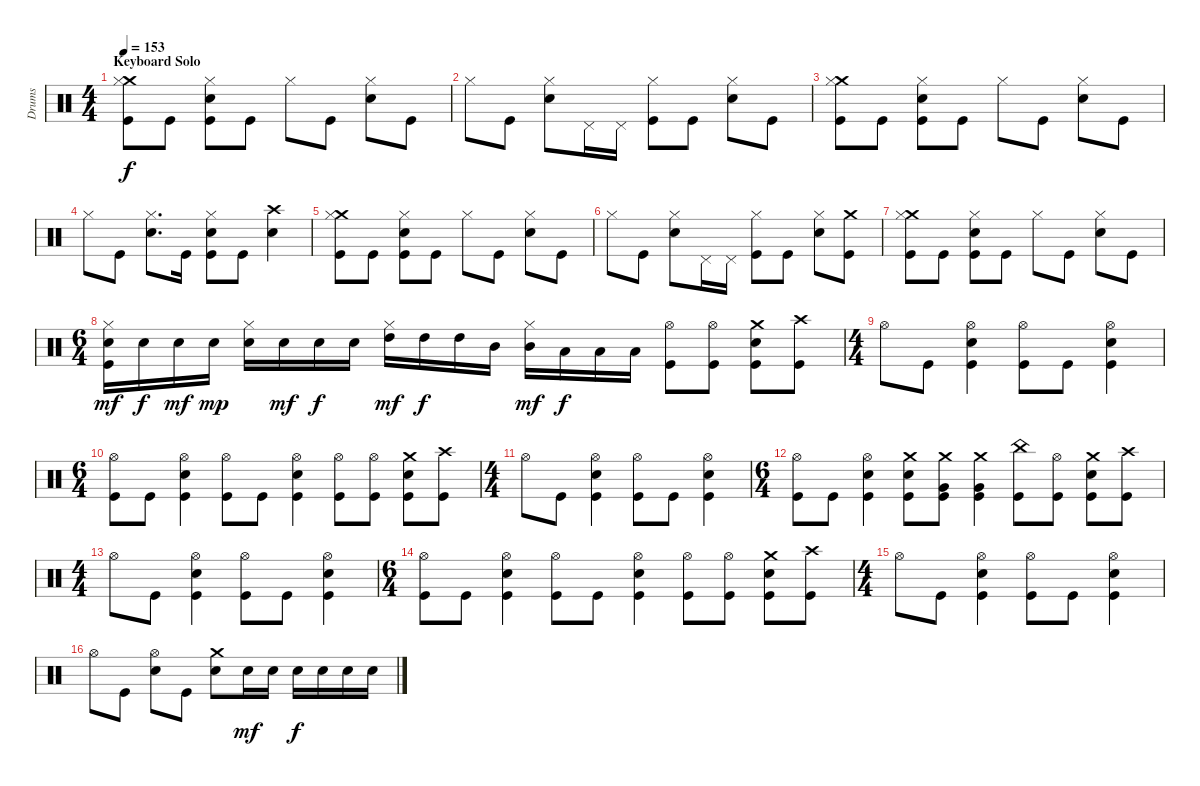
\track ("Drums" "Drums") {instrument percussion}
\staff {score}
\articulation defaults
\ts (4 4)
\section ("" "Keyboard Solo")
\tempo 153
\clef neutral
\ks c
("Crash medium (hit)" "Hi-Hat (closed)" "Kick (hit)").8{dy f} "Kick (hit)".8 ("Hi-Hat (closed)" "Electric Snare (hit)" "Kick (hit)").8 "Kick (hit)".8 "Hi-Hat (closed)".8 "Kick (hit)".8 ("Hi-Hat (closed)" "Electric Snare (hit)").8 "Kick (hit)".8 |
"Hi-Hat (closed)".8 "Kick (hit)".8 ("Hi-Hat (closed)" "Electric Snare (hit)").8 "Pedal Hi-Hat (hit)".16 "Pedal Hi-Hat (hit)".16 ("Hi-Hat (closed)" "Kick (hit)").8 "Kick (hit)".8 ("Hi-Hat (closed)" "Electric Snare (hit)").8 "Kick (hit)".8 |
("Crash medium (hit)" "Hi-Hat (closed)" "Kick (hit)").8 "Kick (hit)".8 ("Hi-Hat (closed)" "Electric Snare (hit)" "Kick (hit)").8 "Kick (hit)".8 "Hi-Hat (closed)".8 "Kick (hit)".8 ("Hi-Hat (closed)" "Electric Snare (hit)").8 "Kick (hit)".8 |
"Hi-Hat (closed)".8 "Kick (hit)".8 ("Hi-Hat (closed)" "Electric Snare (hit)").8{d} "Kick (hit)".16 ("Hi-Hat (closed)" "Electric Snare (hit)" "Kick (hit)").8 "Kick (hit)".8 ("Crash high (hit)" "Electric Snare (hit)").4 |
("Crash medium (hit)" "Hi-Hat (closed)" "Kick (hit)").8 "Kick (hit)".8 ("Hi-Hat (closed)" "Electric Snare (hit)" "Kick (hit)").8 "Kick (hit)".8 "Hi-Hat (closed)".8 "Kick (hit)".8 ("Hi-Hat (closed)" "Electric Snare (hit)").8 "Kick (hit)".8 |
"Hi-Hat (closed)".8 "Kick (hit)".8 ("Hi-Hat (closed)" "Electric Snare (hit)").8 "Pedal Hi-Hat (hit)".16 "Pedal Hi-Hat (hit)".16 ("Hi-Hat (closed)" "Kick (hit)").8 "Kick (hit)".8 ("Hi-Hat (closed)" "Electric Snare (hit)").8 ("Crash medium (hit)" "Kick (hit)").8 |
("Crash medium (hit)" "Hi-Hat (closed)" "Kick (hit)").8 "Kick (hit)".8 ("Hi-Hat (closed)" "Electric Snare (hit)" "Kick (hit)").8 "Kick (hit)".8 "Hi-Hat (closed)".8 "Kick (hit)".8 ("Hi-Hat (closed)" "Electric Snare (hit)").8 "Kick (hit)".8 |
\ts (6 4)
("Hi-Hat (closed)" "Electric Snare (hit)" "Kick (hit)").16{dy mf} "Electric Snare (hit)".16{dy f} "Electric Snare (hit)".16{dy mf} "Electric Snare (hit)".16{dy mp} ("Hi-Hat (closed)" "Electric Snare (hit)").16 "Electric Snare (hit)".16{dy mf} "Electric Snare (hit)".16{dy f} "Electric Snare (hit)".16 ("Hi-Hat (closed)" "High Tom (hit)").16{dy mf} "High Tom (hit)".16{dy f} "High Tom (hit)".16 "Mid Tom (hit)".16 ("Hi-Hat (closed)" "Mid Tom (hit)").16{dy mf} "Low Tom (hit)".16{dy f} "Low Tom (hit)".16 "Low Tom (hit)".16 ("Hi-Hat (open)" "Kick (hit)").8 ("Hi-Hat (open)" "Kick (hit)").8 ("Crash medium (hit)" "Electric Snare (hit)" "Kick (hit)").8 ("Crash high (hit)" "Kick (hit)").8 |
\ts (4 4)
"Hi-Hat (open)".8 "Kick (hit)".8 ("Hi-Hat (open)" "Electric Snare (hit)" "Kick (hit)").4 ("Hi-Hat (open)" "Kick (hit)").8 "Kick (hit)".8 ("Hi-Hat (open)" "Electric Snare (hit)" "Kick (hit)").4 |
\ts (6 4)
("Hi-Hat (open)" "Kick (hit)").8 "Kick (hit)".8 ("Hi-Hat (open)" "Electric Snare (hit)" "Kick (hit)").4 ("Hi-Hat (open)" "Kick (hit)").8 "Kick (hit)".8 ("Hi-Hat (open)" "Electric Snare (hit)" "Kick (hit)").4 ("Hi-Hat (open)" "Kick (hit)").8 ("Hi-Hat (open)" "Kick (hit)").8 ("Crash medium (hit)" "Electric Snare (hit)" "Kick (hit)").8 ("Crash high (hit)" "Kick (hit)").8 |
\ts (4 4)
"Hi-Hat (open)".8 "Kick (hit)".8 ("Hi-Hat (open)" "Electric Snare (hit)" "Kick (hit)").4 ("Hi-Hat (open)" "Kick (hit)").8 "Kick (hit)".8 ("Hi-Hat (open)" "Electric Snare (hit)" "Kick (hit)").4 |
\ts (6 4)
("Hi-Hat (open)" "Kick (hit)").8 "Kick (hit)".8 ("Hi-Hat (open)" "Electric Snare (hit)" "Kick (hit)").4 ("Crash medium (hit)" "Electric Snare (hit)" "Kick (hit)").8 ("Crash medium (hit)" "Very Low Tom (hit)" "Kick (hit)").8 ("Crash medium (hit)" "Very Low Tom (hit)" "Kick (hit)").4 ("China (hit)" "Kick (hit)").8 ("Hi-Hat (open)" "Kick (hit)").8 ("Crash medium (hit)" "Electric Snare (hit)" "Kick (hit)").8 ("Crash high (hit)" "Kick (hit)").8 |
\ts (4 4)
"Hi-Hat (open)".8 "Kick (hit)".8 ("Hi-Hat (open)" "Electric Snare (hit)" "Kick (hit)").4 ("Hi-Hat (open)" "Kick (hit)").8 "Kick (hit)".8 ("Hi-Hat (open)" "Electric Snare (hit)" "Kick (hit)").4 |
\ts (6 4)
("Hi-Hat (open)" "Kick (hit)").8 "Kick (hit)".8 ("Hi-Hat (open)" "Electric Snare (hit)" "Kick (hit)").4 ("Hi-Hat (open)" "Kick (hit)").8 "Kick (hit)".8 ("Hi-Hat (open)" "Electric Snare (hit)" "Kick (hit)").4 ("Hi-Hat (open)" "Kick (hit)").8 ("Hi-Hat (open)" "Kick (hit)").8 ("Crash medium (hit)" "Electric Snare (hit)" "Kick (hit)").8 ("Crash high (hit)" "Kick (hit)").8 |
\ts (4 4)
"Hi-Hat (open)".8 "Kick (hit)".8 ("Hi-Hat (open)" "Electric Snare (hit)" "Kick (hit)").4 ("Hi-Hat (open)" "Kick (hit)").8 "Kick (hit)".8 ("Hi-Hat (open)" "Electric Snare (hit)" "Kick (hit)").4 |
"Hi-Hat (open)".8 "Kick (hit)".8 ("Hi-Hat (open)" "Electric Snare (hit)").8 "Kick (hit)".8 ("Crash medium (hit)" "Electric Snare (hit)").8 "Electric Snare (hit)".16{dy mf} "Electric Snare (hit)".16 "Electric Snare (hit)".16{dy f} "Electric Snare (hit)".16 "Electric Snare (hit)".16 "Electric Snare (hit)".16
